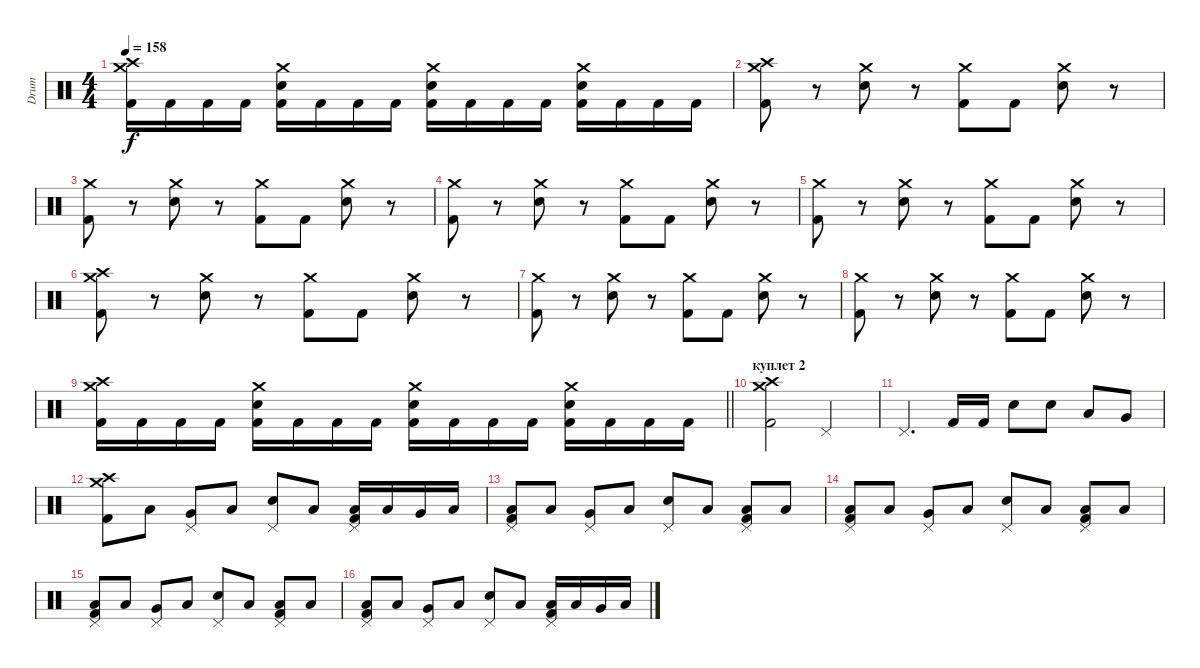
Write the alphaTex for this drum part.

\track ("Drum" "Drum") {instrument percussion}
\staff {score}
\articulation defaults
\ts (4 4)
\tempo 158
\clef neutral
\ks c
("Crash high (hit)" "Crash medium (hit)" "Kick (hit) 2").16{dy f} "Kick (hit) 2".16 "Kick (hit) 2".16 "Kick (hit) 2".16 ("Crash medium (hit)" "Snare (hit) 2" "Kick (hit) 2").16 "Kick (hit) 2".16 "Kick (hit) 2".16 "Kick (hit) 2".16 ("Crash medium (hit)" "Snare (hit) 2" "Kick (hit) 2").16 "Kick (hit) 2".16 "Kick (hit) 2".16 "Kick (hit) 2".16 ("Crash medium (hit)" "Snare (hit) 2" "Kick (hit) 2").16 "Kick (hit) 2".16 "Kick (hit) 2".16 "Kick (hit) 2".16 |
("Crash high (hit)" "Crash medium (hit)" "Kick (hit) 2").8 r.8 ("Crash medium (hit)" "Snare (hit) 2").8 r.8 ("Crash medium (hit)" "Kick (hit) 2").8 "Kick (hit) 2".8 ("Crash medium (hit)" "Snare (hit) 2").8 r.8 |
("Crash medium (hit)" "Kick (hit) 2").8 r.8 ("Crash medium (hit)" "Snare (hit) 2").8 r.8 ("Crash medium (hit)" "Kick (hit) 2").8 "Kick (hit) 2".8 ("Crash medium (hit)" "Snare (hit) 2").8 r.8 |
("Crash medium (hit)" "Kick (hit) 2").8 r.8 ("Crash medium (hit)" "Snare (hit) 2").8 r.8 ("Crash medium (hit)" "Kick (hit) 2").8 "Kick (hit) 2".8 ("Crash medium (hit)" "Snare (hit) 2").8 r.8 |
("Crash medium (hit)" "Kick (hit) 2").8 r.8 ("Crash medium (hit)" "Snare (hit) 2").8 r.8 ("Crash medium (hit)" "Kick (hit) 2").8 "Kick (hit) 2".8 ("Crash medium (hit)" "Snare (hit) 2").8 r.8 |
("Crash high (hit)" "Crash medium (hit)" "Kick (hit) 2").8 r.8 ("Crash medium (hit)" "Snare (hit) 2").8 r.8 ("Crash medium (hit)" "Kick (hit) 2").8 "Kick (hit) 2".8 ("Crash medium (hit)" "Snare (hit) 2").8 r.8 |
("Crash medium (hit)" "Kick (hit) 2").8 r.8 ("Crash medium (hit)" "Snare (hit) 2").8 r.8 ("Crash medium (hit)" "Kick (hit) 2").8 "Kick (hit) 2".8 ("Crash medium (hit)" "Snare (hit) 2").8 r.8 |
("Crash medium (hit)" "Kick (hit) 2").8 r.8 ("Crash medium (hit)" "Snare (hit) 2").8 r.8 ("Crash medium (hit)" "Kick (hit) 2").8 "Kick (hit) 2".8 ("Crash medium (hit)" "Snare (hit) 2").8 r.8 |
\barLineRight lightlight
("Crash high (hit)" "Crash medium (hit)" "Kick (hit) 2").16 "Kick (hit) 2".16 "Kick (hit) 2".16 "Kick (hit) 2".16 ("Crash medium (hit)" "Snare (hit) 2" "Kick (hit) 2").16 "Kick (hit) 2".16 "Kick (hit) 2".16 "Kick (hit) 2".16 ("Crash medium (hit)" "Snare (hit) 2" "Kick (hit) 2").16 "Kick (hit) 2".16 "Kick (hit) 2".16 "Kick (hit) 2".16 ("Crash medium (hit)" "Snare (hit) 2" "Kick (hit) 2").16 "Kick (hit) 2".16 "Kick (hit) 2".16 "Kick (hit) 2".16 |
\section ("" "куплет 2")
("Crash medium (hit)" "Crash high (hit)" "Kick (hit) 2").2 "Pedal Hi-Hat (hit)".2 |
"Pedal Hi-Hat (hit)".4{d} "Kick (hit) 2".16 "Kick (hit) 2".16 "Snare (hit) 2".8 "Snare (hit) 2".8 "Low Tom (hit)".8 "Very Low Tom (hit)".8 |
("Crash high (hit)" "Crash medium (hit)" "Kick (hit) 2").8 "Low Tom (hit)".8 ("Pedal Hi-Hat (hit)" "Very Low Tom (hit)").8 "Low Tom (hit)".8 ("Pedal Hi-Hat (hit)" "Snare (hit) 2").8 "Low Tom (hit)".8 ("Pedal Hi-Hat (hit)" "Low Floor Tom (hit)" "Kick (hit) 2").16 "Low Tom (hit)".16 "Very Low Tom (hit)".16 "Low Floor Tom (hit)".16 |
("Pedal Hi-Hat (hit)" "Low Floor Tom (hit)" "Kick (hit) 2").8 "Low Tom (hit)".8 ("Pedal Hi-Hat (hit)" "Very Low Tom (hit)").8 "Low Tom (hit)".8 ("Pedal Hi-Hat (hit)" "Snare (hit) 2").8 "Low Tom (hit)".8 ("Pedal Hi-Hat (hit)" "Low Floor Tom (hit)" "Kick (hit) 2").8 "Low Tom (hit)".8 |
("Pedal Hi-Hat (hit)" "Low Floor Tom (hit)" "Kick (hit) 2").8 "Low Tom (hit)".8 ("Pedal Hi-Hat (hit)" "Very Low Tom (hit)").8 "Low Tom (hit)".8 ("Pedal Hi-Hat (hit)" "Snare (hit) 2").8 "Low Tom (hit)".8 ("Pedal Hi-Hat (hit)" "Low Floor Tom (hit)" "Kick (hit) 2").8 "Low Tom (hit)".8 |
("Pedal Hi-Hat (hit)" "Low Floor Tom (hit)" "Kick (hit) 2").8 "Low Tom (hit)".8 ("Pedal Hi-Hat (hit)" "Very Low Tom (hit)").8 "Low Tom (hit)".8 ("Pedal Hi-Hat (hit)" "Snare (hit) 2").8 "Low Tom (hit)".8 ("Pedal Hi-Hat (hit)" "Low Floor Tom (hit)" "Kick (hit) 2").8 "Low Tom (hit)".8 |
("Pedal Hi-Hat (hit)" "Low Floor Tom (hit)" "Kick (hit) 2").8 "Low Tom (hit)".8 ("Pedal Hi-Hat (hit)" "Very Low Tom (hit)").8 "Low Tom (hit)".8 ("Pedal Hi-Hat (hit)" "Snare (hit) 2").8 "Low Tom (hit)".8 ("Pedal Hi-Hat (hit)" "Low Floor Tom (hit)" "Kick (hit) 2").16 "Low Tom (hit)".16 "Very Low Tom (hit)".16 "Low Floor Tom (hit)".16
